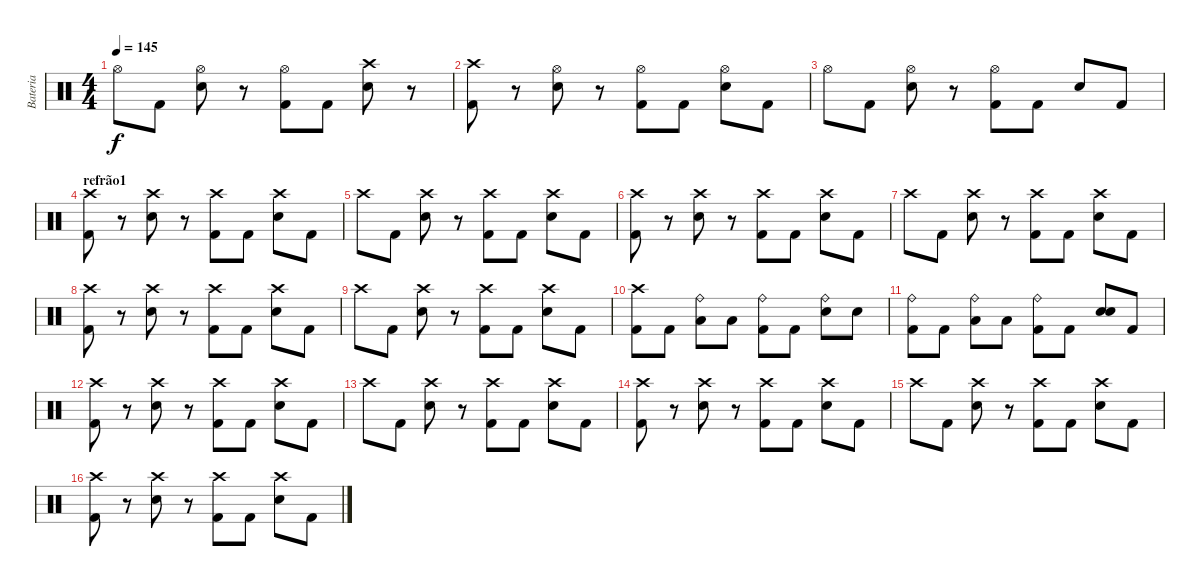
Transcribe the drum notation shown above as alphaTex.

\track ("Bateria" "Bateria") {instrument percussion}
\staff {score}
\articulation defaults
\ts (4 4)
\tempo 145
\clef neutral
\ks c "Hi-Hat (open)".8{dy f} "Kick (hit) 2".8
("Hi-Hat (open)" "Electric Snare (hit)").8 r.8 ("Hi-Hat (open)" "Kick (hit) 2").8 "Kick (hit) 2".8 ("Crash high (hit)" "Electric Snare (hit)").8 r.8 |
("Crash high (hit)" "Kick (hit) 2").8 r.8 ("Hi-Hat (open)" "Electric Snare (hit)").8 r.8 ("Hi-Hat (open)" "Kick (hit) 2").8 "Kick (hit) 2".8 ("Hi-Hat (open)" "Electric Snare (hit)").8 "Kick (hit) 2".8 |
"Hi-Hat (open)".8 "Kick (hit) 2".8 ("Hi-Hat (open)" "Electric Snare (hit)").8 r.8 ("Hi-Hat (open)" "Kick (hit) 2").8 "Kick (hit) 2".8 "Electric Snare (hit)".8 "Kick (hit) 2".8 |
\section ("" "refrão1")
("Crash high (hit)" "Kick (hit) 2").8 r.8 ("Crash high (hit)" "Electric Snare (hit)").8 r.8 ("Crash high (hit)" "Kick (hit) 2").8 "Kick (hit) 2".8 ("Crash high (hit)" "Electric Snare (hit)").8 "Kick (hit) 2".8 |
"Crash high (hit)".8 "Kick (hit) 2".8 ("Crash high (hit)" "Electric Snare (hit)").8 r.8 ("Crash high (hit)" "Kick (hit) 2").8 "Kick (hit) 2".8 ("Crash high (hit)" "Electric Snare (hit)").8 "Kick (hit) 2".8 |
("Crash high (hit)" "Kick (hit) 2").8 r.8 ("Crash high (hit)" "Electric Snare (hit)").8 r.8 ("Crash high (hit)" "Kick (hit) 2").8 "Kick (hit) 2".8 ("Crash high (hit)" "Electric Snare (hit)").8 "Kick (hit) 2".8 |
"Crash high (hit)".8 "Kick (hit) 2".8 ("Crash high (hit)" "Electric Snare (hit)").8 r.8 ("Crash high (hit)" "Kick (hit) 2").8 "Kick (hit) 2".8 ("Crash high (hit)" "Electric Snare (hit)").8 "Kick (hit) 2".8 |
("Crash high (hit)" "Kick (hit) 2").8 r.8 ("Crash high (hit)" "Electric Snare (hit)").8 r.8 ("Crash high (hit)" "Kick (hit) 2").8 "Kick (hit) 2".8 ("Crash high (hit)" "Electric Snare (hit)").8 "Kick (hit) 2".8 |
"Crash high (hit)".8 "Kick (hit) 2".8 ("Crash high (hit)" "Electric Snare (hit)").8 r.8 ("Crash high (hit)" "Kick (hit) 2").8 "Kick (hit) 2".8 ("Crash high (hit)" "Electric Snare (hit)").8 "Kick (hit) 2".8 |
("Crash high (hit)" "Kick (hit) 2").8 "Kick (hit) 2".8 ("Ride (bell)" "Low Tom (hit)").8 "Low Tom (hit)".8 ("Ride (bell)" "Kick (hit) 2").8 "Kick (hit) 2".8 ("Ride (bell)" "Electric Snare (hit)").8 "Electric Snare (hit)".8 |
("Ride (bell)" "Kick (hit) 2").8 "Kick (hit) 2".8 ("Ride (bell)" "Low Tom (hit)").8 "Low Tom (hit)".8 ("Ride (bell)" "Kick (hit) 2").8 "Kick (hit) 2".8 ("Electric Snare (hit)" "Electric Snare (hit)").8 "Kick (hit) 2".8 |
("Crash high (hit)" "Kick (hit) 2").8 r.8 ("Crash high (hit)" "Electric Snare (hit)").8 r.8 ("Crash high (hit)" "Kick (hit) 2").8 "Kick (hit) 2".8 ("Crash high (hit)" "Electric Snare (hit)").8 "Kick (hit) 2".8 |
"Crash high (hit)".8 "Kick (hit) 2".8 ("Crash high (hit)" "Electric Snare (hit)").8 r.8 ("Crash high (hit)" "Kick (hit) 2").8 "Kick (hit) 2".8 ("Crash high (hit)" "Electric Snare (hit)").8 "Kick (hit) 2".8 |
("Crash high (hit)" "Kick (hit) 2").8 r.8 ("Crash high (hit)" "Electric Snare (hit)").8 r.8 ("Crash high (hit)" "Kick (hit) 2").8 "Kick (hit) 2".8 ("Crash high (hit)" "Electric Snare (hit)").8 "Kick (hit) 2".8 |
"Crash high (hit)".8 "Kick (hit) 2".8 ("Crash high (hit)" "Electric Snare (hit)").8 r.8 ("Crash high (hit)" "Kick (hit) 2").8 "Kick (hit) 2".8 ("Crash high (hit)" "Electric Snare (hit)").8 "Kick (hit) 2".8 |
("Crash high (hit)" "Kick (hit) 2").8 r.8 ("Crash high (hit)" "Electric Snare (hit)").8 r.8 ("Crash high (hit)" "Kick (hit) 2").8 "Kick (hit) 2".8 ("Crash high (hit)" "Electric Snare (hit)").8 "Kick (hit) 2".8
